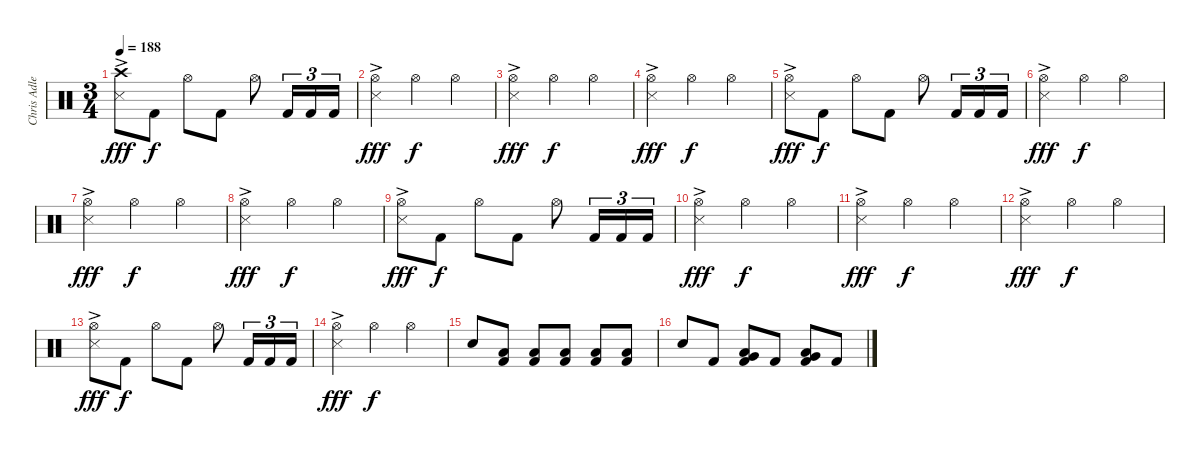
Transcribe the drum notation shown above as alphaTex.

\track ("Chris Adler (Drums)" "Chris Adle") {instrument percussion}
\staff {score}
\articulation defaults
\ts (3 4)
\tempo 188
\clef neutral
\ks c
("Crash high (hit)" "Snare (side stick) 3"{ac}).8{dy fff} "Kick (hit) 2".8{dy f} "Hi-Hat (open)".8 "Kick (hit) 2".8 "Hi-Hat (open)".8 "Kick (hit) 2".16{tu (3 2)} "Kick (hit) 2".16{tu (3 2)} "Kick (hit) 2".16{tu (3 2)} |
("Hi-Hat (open)" "Snare (side stick) 3"{ac}).4{dy fff} "Hi-Hat (open)".4{dy f} "Hi-Hat (open)".4 |
("Hi-Hat (open)" "Snare (side stick) 3"{ac}).4{dy fff} "Hi-Hat (open)".4{dy f} "Hi-Hat (open)".4 |
("Hi-Hat (open)" "Snare (side stick) 3"{ac}).4{dy fff} "Hi-Hat (open)".4{dy f} "Hi-Hat (open)".4 |
("Hi-Hat (open)" "Snare (side stick) 3"{ac}).8{dy fff} "Kick (hit) 2".8{dy f} "Hi-Hat (open)".8 "Kick (hit) 2".8 "Hi-Hat (open)".8 "Kick (hit) 2".16{tu (3 2)} "Kick (hit) 2".16{tu (3 2)} "Kick (hit) 2".16{tu (3 2)} |
("Hi-Hat (open)" "Snare (side stick) 3"{ac}).4{dy fff} "Hi-Hat (open)".4{dy f} "Hi-Hat (open)".4 |
("Hi-Hat (open)" "Snare (side stick) 3"{ac}).4{dy fff} "Hi-Hat (open)".4{dy f} "Hi-Hat (open)".4 |
("Hi-Hat (open)" "Snare (side stick) 3"{ac}).4{dy fff} "Hi-Hat (open)".4{dy f} "Hi-Hat (open)".4 |
("Hi-Hat (open)" "Snare (side stick) 3"{ac}).8{dy fff} "Kick (hit) 2".8{dy f} "Hi-Hat (open)".8 "Kick (hit) 2".8 "Hi-Hat (open)".8 "Kick (hit) 2".16{tu (3 2)} "Kick (hit) 2".16{tu (3 2)} "Kick (hit) 2".16{tu (3 2)} |
("Hi-Hat (open)" "Snare (side stick) 3"{ac}).4{dy fff} "Hi-Hat (open)".4{dy f} "Hi-Hat (open)".4 |
("Hi-Hat (open)" "Snare (side stick) 3"{ac}).4{dy fff} "Hi-Hat (open)".4{dy f} "Hi-Hat (open)".4 |
("Hi-Hat (open)" "Snare (side stick) 3"{ac}).4{dy fff} "Hi-Hat (open)".4{dy f} "Hi-Hat (open)".4 |
("Hi-Hat (open)" "Snare (side stick) 3"{ac}).8{dy fff} "Kick (hit) 2".8{dy f} "Hi-Hat (open)".8 "Kick (hit) 2".8 "Hi-Hat (open)".8 "Kick (hit) 2".16{tu (3 2)} "Kick (hit) 2".16{tu (3 2)} "Kick (hit) 2".16{tu (3 2)} |
("Hi-Hat (open)" "Snare (side stick) 3"{ac}).4{dy fff} "Hi-Hat (open)".4{dy f} "Hi-Hat (open)".4 |
"Snare (hit) 2".8 ("Low Floor Tom (hit)" "Kick (hit) 2").8 ("Low Floor Tom (hit)" "Kick (hit) 2").8 ("Low Floor Tom (hit)" "Kick (hit) 2").8 ("Low Floor Tom (hit)" "Kick (hit) 2").8 ("Low Floor Tom (hit)" "Kick (hit) 2").8 |
"Snare (hit) 2".8 "Kick (hit) 2".8 ("Low Tom (hit)" "Very Low Tom (hit)" "Kick (hit) 2").8 "Kick (hit) 2".8 ("Very Low Tom (hit)" "Low Floor Tom (hit)" "Kick (hit) 2").8 "Kick (hit) 2".8
